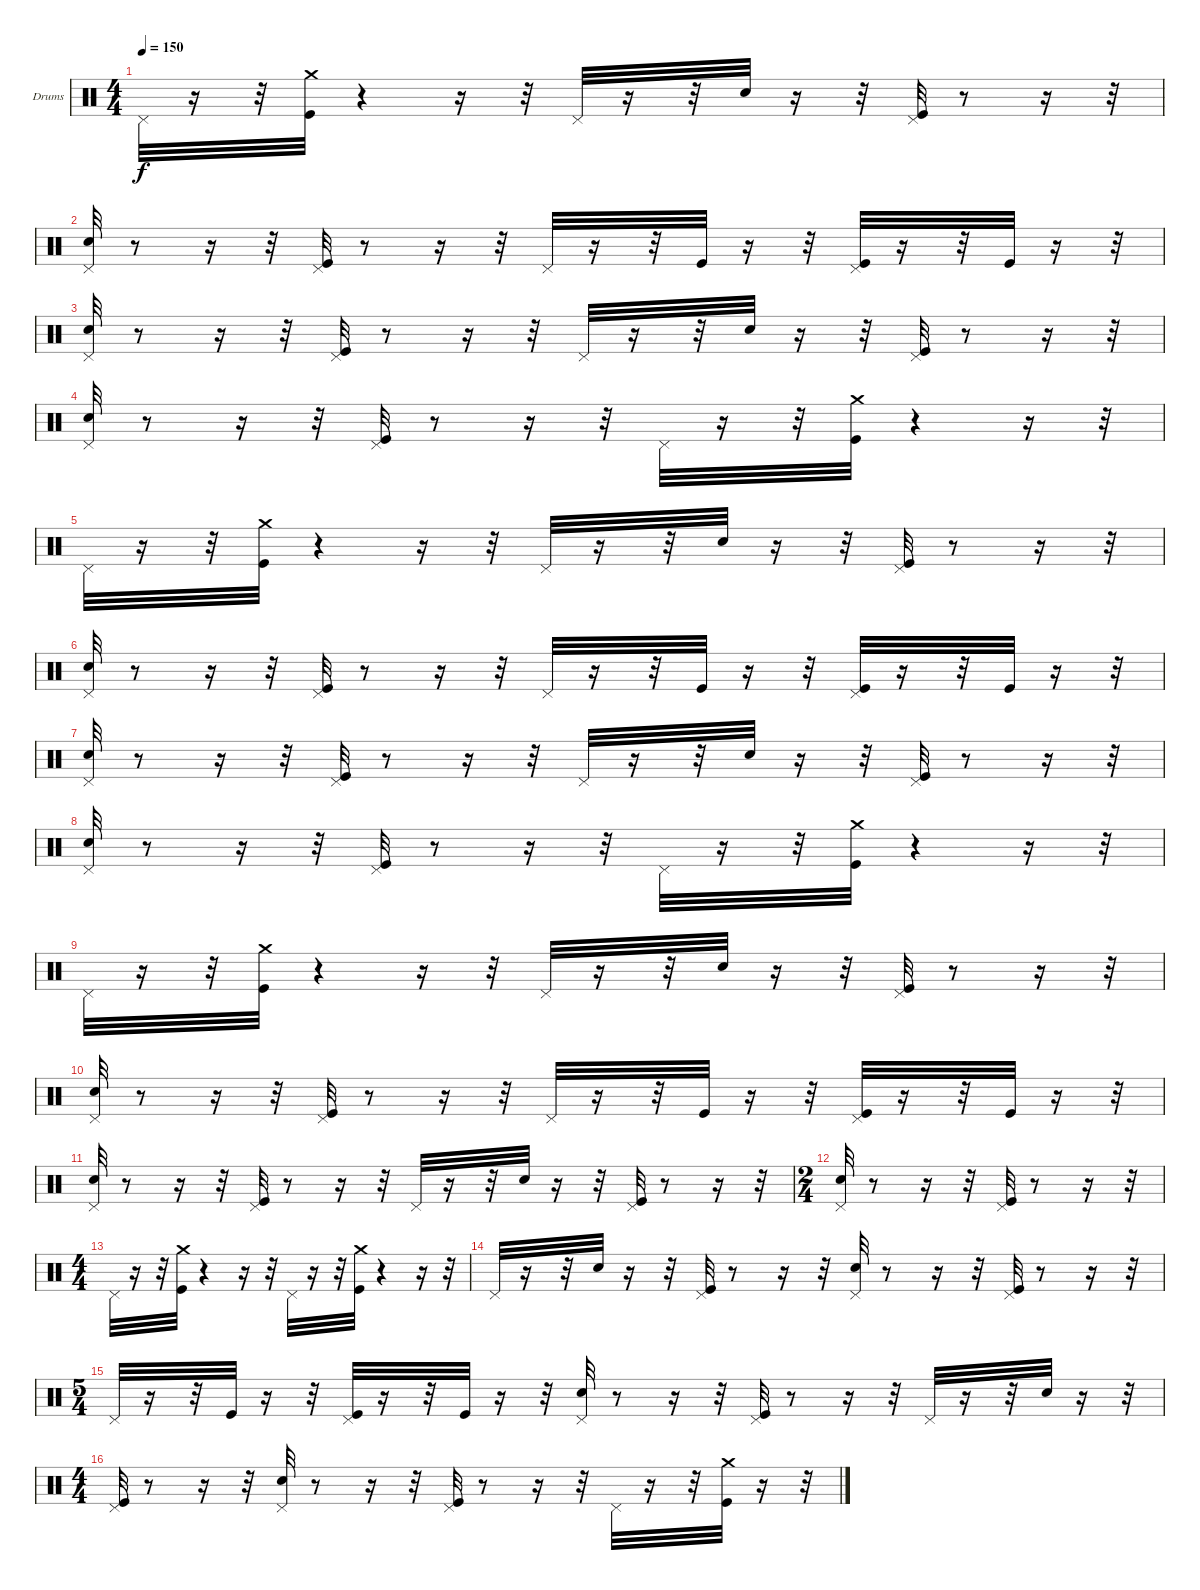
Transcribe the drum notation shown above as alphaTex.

\bracketExtendMode groupsimilarinstruments
\firstSystemTrackNameOrientation horizontal
\otherSystemsTrackNameOrientation horizontal
\track ("Drumkit" "Drums") {instrument percussion}
\staff {score}
\articulation defaults
\ts (4 4)
\tempo 150
\clef neutral
\ks c "Pedal Hi-Hat (hit)".32{dy f}
r.16 r.32 ("Crash medium (hit)" "Kick (hit)").32 r.4 r.16 r.32 "Pedal Hi-Hat (hit)".32 r.16 r.32 "Snare (hit) 2".32 r.16 r.32 ("Pedal Hi-Hat (hit)" "Kick (hit)").32 r.8 r.16 r.32 |
("Snare (hit) 2" "Pedal Hi-Hat (hit)").32 r.8 r.16 r.32 ("Pedal Hi-Hat (hit)" "Kick (hit)").32 r.8 r.16 r.32 "Pedal Hi-Hat (hit)".32 r.16 r.32 "Kick (hit)".32 r.16 r.32 ("Pedal Hi-Hat (hit)" "Kick (hit)").32 r.16 r.32 "Kick (hit)".32 r.16 r.32 |
("Pedal Hi-Hat (hit)" "Snare (hit) 2").32 r.8 r.16 r.32 ("Pedal Hi-Hat (hit)" "Kick (hit)").32 r.8 r.16 r.32 "Pedal Hi-Hat (hit)".32 r.16 r.32 "Snare (hit) 2".32 r.16 r.32 ("Pedal Hi-Hat (hit)" "Kick (hit)").32 r.8 r.16 r.32 |
("Pedal Hi-Hat (hit)" "Snare (hit) 2").32 r.8 r.16 r.32 ("Pedal Hi-Hat (hit)" "Kick (hit)").32 r.8 r.16 r.32 "Pedal Hi-Hat (hit)".32 r.16 r.32 ("Crash medium (hit)" "Kick (hit)").32 r.4 r.16 r.32 |
"Pedal Hi-Hat (hit)".32 r.16 r.32 ("Crash medium (hit)" "Kick (hit)").32 r.4 r.16 r.32 "Pedal Hi-Hat (hit)".32 r.16 r.32 "Snare (hit) 2".32 r.16 r.32 ("Pedal Hi-Hat (hit)" "Kick (hit)").32 r.8 r.16 r.32 |
("Snare (hit) 2" "Pedal Hi-Hat (hit)").32 r.8 r.16 r.32 ("Pedal Hi-Hat (hit)" "Kick (hit)").32 r.8 r.16 r.32 "Pedal Hi-Hat (hit)".32 r.16 r.32 "Kick (hit)".32 r.16 r.32 ("Pedal Hi-Hat (hit)" "Kick (hit)").32 r.16 r.32 "Kick (hit)".32 r.16 r.32 |
("Pedal Hi-Hat (hit)" "Snare (hit) 2").32 r.8 r.16 r.32 ("Pedal Hi-Hat (hit)" "Kick (hit)").32 r.8 r.16 r.32 "Pedal Hi-Hat (hit)".32 r.16 r.32 "Snare (hit) 2".32 r.16 r.32 ("Pedal Hi-Hat (hit)" "Kick (hit)").32 r.8 r.16 r.32 |
("Pedal Hi-Hat (hit)" "Snare (hit) 2").32 r.8 r.16 r.32 ("Pedal Hi-Hat (hit)" "Kick (hit)").32 r.8 r.16 r.32 "Pedal Hi-Hat (hit)".32 r.16 r.32 ("Crash medium (hit)" "Kick (hit)").32 r.4 r.16 r.32 |
"Pedal Hi-Hat (hit)".32 r.16 r.32 ("Crash medium (hit)" "Kick (hit)").32 r.4 r.16 r.32 "Pedal Hi-Hat (hit)".32 r.16 r.32 "Snare (hit) 2".32 r.16 r.32 ("Pedal Hi-Hat (hit)" "Kick (hit)").32 r.8 r.16 r.32 |
("Snare (hit) 2" "Pedal Hi-Hat (hit)").32 r.8 r.16 r.32 ("Pedal Hi-Hat (hit)" "Kick (hit)").32 r.8 r.16 r.32 "Pedal Hi-Hat (hit)".32 r.16 r.32 "Kick (hit)".32 r.16 r.32 ("Pedal Hi-Hat (hit)" "Kick (hit)").32 r.16 r.32 "Kick (hit)".32 r.16 r.32 |
("Pedal Hi-Hat (hit)" "Snare (hit) 2").32 r.8 r.16 r.32 ("Pedal Hi-Hat (hit)" "Kick (hit)").32 r.8 r.16 r.32 "Pedal Hi-Hat (hit)".32 r.16 r.32 "Snare (hit) 2".32 r.16 r.32 ("Pedal Hi-Hat (hit)" "Kick (hit)").32 r.8 r.16 r.32 |
\ts (2 4)
("Pedal Hi-Hat (hit)" "Snare (hit) 2").32 r.8 r.16 r.32 ("Pedal Hi-Hat (hit)" "Kick (hit)").32 r.8 r.16 r.32 |
\ts (4 4)
"Pedal Hi-Hat (hit)".32 r.16 r.32 ("Crash medium (hit)" "Kick (hit)").32 r.4 r.16 r.32 "Pedal Hi-Hat (hit)".32 r.16 r.32 ("Crash medium (hit)" "Kick (hit)").32 r.4 r.16 r.32 |
"Pedal Hi-Hat (hit)".32 r.16 r.32 "Snare (hit) 2".32 r.16 r.32 ("Pedal Hi-Hat (hit)" "Kick (hit)").32 r.8 r.16 r.32 ("Snare (hit) 2" "Pedal Hi-Hat (hit)").32 r.8 r.16 r.32 ("Pedal Hi-Hat (hit)" "Kick (hit)").32 r.8 r.16 r.32 |
\ts (5 4)
"Pedal Hi-Hat (hit)".32 r.16 r.32 "Kick (hit)".32 r.16 r.32 ("Pedal Hi-Hat (hit)" "Kick (hit)").32 r.16 r.32 "Kick (hit)".32 r.16 r.32 ("Pedal Hi-Hat (hit)" "Snare (hit) 2").32 r.8 r.16 r.32 ("Pedal Hi-Hat (hit)" "Kick (hit)").32 r.8 r.16 r.32 "Pedal Hi-Hat (hit)".32 r.16 r.32 "Snare (hit) 2".32 r.16 r.32 |
\ts (4 4)
("Pedal Hi-Hat (hit)" "Kick (hit)").32 r.8 r.16 r.32 ("Pedal Hi-Hat (hit)" "Snare (hit) 2").32 r.8 r.16 r.32 ("Pedal Hi-Hat (hit)" "Kick (hit)").32 r.8 r.16 r.32 "Pedal Hi-Hat (hit)".32 r.16 r.32 ("Crash medium (hit)" "Kick (hit)").32 r.16 r.32
